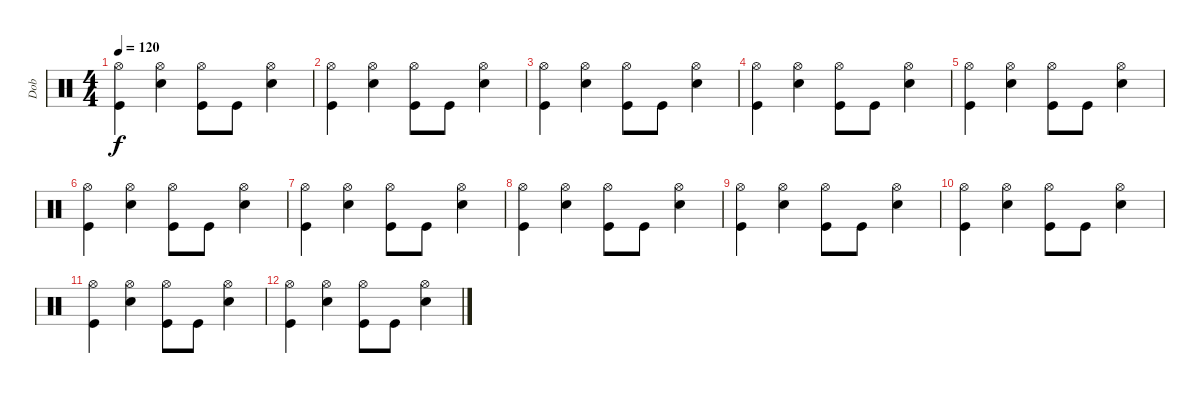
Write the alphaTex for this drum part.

\track ("Dob" "Dob") {instrument percussion}
\staff {score}
\articulation defaults
\ts (4 4)
\tempo 120
\clef neutral
\ks c
("Hi-Hat (open)" "Kick (hit)").4{dy f} ("Hi-Hat (open)" "Snare (hit) 2").4 ("Hi-Hat (open)" "Kick (hit)").8 "Kick (hit)".8 ("Hi-Hat (open)" "Snare (hit) 2").4 |
("Hi-Hat (open)" "Kick (hit)").4 ("Hi-Hat (open)" "Snare (hit) 2").4 ("Hi-Hat (open)" "Kick (hit)").8 "Kick (hit)".8 ("Hi-Hat (open)" "Snare (hit) 2").4 |
("Hi-Hat (open)" "Kick (hit)").4 ("Hi-Hat (open)" "Snare (hit) 2").4 ("Hi-Hat (open)" "Kick (hit)").8 "Kick (hit)".8 ("Hi-Hat (open)" "Snare (hit) 2").4 |
("Hi-Hat (open)" "Kick (hit)").4 ("Hi-Hat (open)" "Snare (hit) 2").4 ("Hi-Hat (open)" "Kick (hit)").8 "Kick (hit)".8 ("Hi-Hat (open)" "Snare (hit) 2").4 |
("Hi-Hat (open)" "Kick (hit)").4 ("Hi-Hat (open)" "Snare (hit) 2").4 ("Hi-Hat (open)" "Kick (hit)").8 "Kick (hit)".8 ("Hi-Hat (open)" "Snare (hit) 2").4 |
("Hi-Hat (open)" "Kick (hit)").4 ("Hi-Hat (open)" "Snare (hit) 2").4 ("Hi-Hat (open)" "Kick (hit)").8 "Kick (hit)".8 ("Hi-Hat (open)" "Snare (hit) 2").4 |
("Hi-Hat (open)" "Kick (hit)").4 ("Hi-Hat (open)" "Snare (hit) 2").4 ("Hi-Hat (open)" "Kick (hit)").8 "Kick (hit)".8 ("Hi-Hat (open)" "Snare (hit) 2").4 |
("Hi-Hat (open)" "Kick (hit)").4 ("Hi-Hat (open)" "Snare (hit) 2").4 ("Hi-Hat (open)" "Kick (hit)").8 "Kick (hit)".8 ("Hi-Hat (open)" "Snare (hit) 2").4 |
("Hi-Hat (open)" "Kick (hit)").4 ("Hi-Hat (open)" "Snare (hit) 2").4 ("Hi-Hat (open)" "Kick (hit)").8 "Kick (hit)".8 ("Hi-Hat (open)" "Snare (hit) 2").4 |
("Hi-Hat (open)" "Kick (hit)").4 ("Hi-Hat (open)" "Snare (hit) 2").4 ("Hi-Hat (open)" "Kick (hit)").8 "Kick (hit)".8 ("Hi-Hat (open)" "Snare (hit) 2").4 |
("Hi-Hat (open)" "Kick (hit)").4 ("Hi-Hat (open)" "Snare (hit) 2").4 ("Hi-Hat (open)" "Kick (hit)").8 "Kick (hit)".8 ("Hi-Hat (open)" "Snare (hit) 2").4 |
("Hi-Hat (open)" "Kick (hit)").4 ("Hi-Hat (open)" "Snare (hit) 2").4 ("Hi-Hat (open)" "Kick (hit)").8 "Kick (hit)".8 ("Hi-Hat (open)" "Snare (hit) 2").4
